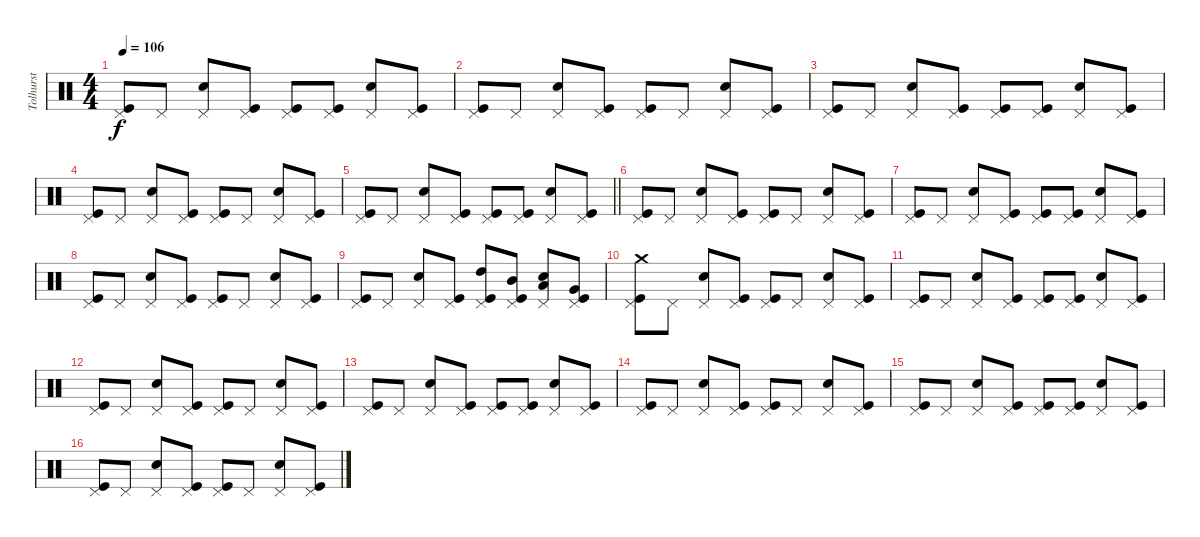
\track ("Tolhurst" "Tolhurst") {instrument percussion}
\staff {score}
\articulation defaults
\ts (4 4)
\tempo 106
\clef neutral
\ks c
("Pedal Hi-Hat (hit)" "Kick (hit)").8{dy f} "Pedal Hi-Hat (hit)".8 ("Pedal Hi-Hat (hit)" "Snare (hit) 2").8 ("Pedal Hi-Hat (hit)" "Kick (hit)").8 ("Pedal Hi-Hat (hit)" "Kick (hit)").8 ("Pedal Hi-Hat (hit)" "Kick (hit)").8 ("Pedal Hi-Hat (hit)" "Snare (hit) 2").8 ("Pedal Hi-Hat (hit)" "Kick (hit)").8 |
("Pedal Hi-Hat (hit)" "Kick (hit)").8 "Pedal Hi-Hat (hit)".8 ("Pedal Hi-Hat (hit)" "Snare (hit) 2").8 ("Pedal Hi-Hat (hit)" "Kick (hit)").8 ("Pedal Hi-Hat (hit)" "Kick (hit)").8 "Pedal Hi-Hat (hit)".8 ("Pedal Hi-Hat (hit)" "Snare (hit) 2").8 ("Pedal Hi-Hat (hit)" "Kick (hit)").8 |
("Pedal Hi-Hat (hit)" "Kick (hit)").8 "Pedal Hi-Hat (hit)".8 ("Pedal Hi-Hat (hit)" "Snare (hit) 2").8 ("Pedal Hi-Hat (hit)" "Kick (hit)").8 ("Pedal Hi-Hat (hit)" "Kick (hit)").8 ("Pedal Hi-Hat (hit)" "Kick (hit)").8 ("Pedal Hi-Hat (hit)" "Snare (hit) 2").8 ("Pedal Hi-Hat (hit)" "Kick (hit)").8 |
("Pedal Hi-Hat (hit)" "Kick (hit)").8 "Pedal Hi-Hat (hit)".8 ("Pedal Hi-Hat (hit)" "Snare (hit) 2").8 ("Pedal Hi-Hat (hit)" "Kick (hit)").8 ("Pedal Hi-Hat (hit)" "Kick (hit)").8 "Pedal Hi-Hat (hit)".8 ("Pedal Hi-Hat (hit)" "Snare (hit) 2").8 ("Pedal Hi-Hat (hit)" "Kick (hit)").8 |
\barLineRight lightlight
("Pedal Hi-Hat (hit)" "Kick (hit)").8 "Pedal Hi-Hat (hit)".8 ("Pedal Hi-Hat (hit)" "Snare (hit) 2").8 ("Pedal Hi-Hat (hit)" "Kick (hit)").8 ("Pedal Hi-Hat (hit)" "Kick (hit)").8 ("Pedal Hi-Hat (hit)" "Kick (hit)").8 ("Pedal Hi-Hat (hit)" "Snare (hit) 2").8 ("Pedal Hi-Hat (hit)" "Kick (hit)").8 |
("Pedal Hi-Hat (hit)" "Kick (hit)").8 "Pedal Hi-Hat (hit)".8 ("Pedal Hi-Hat (hit)" "Snare (hit) 2").8 ("Pedal Hi-Hat (hit)" "Kick (hit)").8 ("Pedal Hi-Hat (hit)" "Kick (hit)").8 "Pedal Hi-Hat (hit)".8 ("Pedal Hi-Hat (hit)" "Snare (hit) 2").8 ("Pedal Hi-Hat (hit)" "Kick (hit)").8 |
("Pedal Hi-Hat (hit)" "Kick (hit)").8 "Pedal Hi-Hat (hit)".8 ("Pedal Hi-Hat (hit)" "Snare (hit) 2").8 ("Pedal Hi-Hat (hit)" "Kick (hit)").8 ("Pedal Hi-Hat (hit)" "Kick (hit)").8 ("Pedal Hi-Hat (hit)" "Kick (hit)").8 ("Pedal Hi-Hat (hit)" "Snare (hit) 2").8 ("Pedal Hi-Hat (hit)" "Kick (hit)").8 |
("Pedal Hi-Hat (hit)" "Kick (hit)").8 "Pedal Hi-Hat (hit)".8 ("Pedal Hi-Hat (hit)" "Snare (hit) 2").8 ("Pedal Hi-Hat (hit)" "Kick (hit)").8 ("Pedal Hi-Hat (hit)" "Kick (hit)").8 "Pedal Hi-Hat (hit)".8 ("Pedal Hi-Hat (hit)" "Snare (hit) 2").8 ("Pedal Hi-Hat (hit)" "Kick (hit)").8 |
("Pedal Hi-Hat (hit)" "Kick (hit)").8 "Pedal Hi-Hat (hit)".8 ("Pedal Hi-Hat (hit)" "Snare (hit) 2").8 ("Pedal Hi-Hat (hit)" "Kick (hit)").8 ("High Tom (hit)" "Pedal Hi-Hat (hit)" "Kick (hit)").8 ("Mid Tom (hit)" "Pedal Hi-Hat (hit)" "Kick (hit)").8 ("Low Tom (hit)" "Pedal Hi-Hat (hit)" "Snare (hit) 2").8 ("Very Low Tom (hit)" "Pedal Hi-Hat (hit)" "Kick (hit)").8 |
("Crash medium (hit)" "Pedal Hi-Hat (hit)" "Kick (hit)").8 "Pedal Hi-Hat (hit)".8 ("Pedal Hi-Hat (hit)" "Snare (hit) 2").8 ("Pedal Hi-Hat (hit)" "Kick (hit)").8 ("Pedal Hi-Hat (hit)" "Kick (hit)").8 "Pedal Hi-Hat (hit)".8 ("Pedal Hi-Hat (hit)" "Snare (hit) 2").8 ("Pedal Hi-Hat (hit)" "Kick (hit)").8 |
("Pedal Hi-Hat (hit)" "Kick (hit)").8 "Pedal Hi-Hat (hit)".8 ("Pedal Hi-Hat (hit)" "Snare (hit) 2").8 ("Pedal Hi-Hat (hit)" "Kick (hit)").8 ("Pedal Hi-Hat (hit)" "Kick (hit)").8 ("Pedal Hi-Hat (hit)" "Kick (hit)").8 ("Pedal Hi-Hat (hit)" "Snare (hit) 2").8 ("Pedal Hi-Hat (hit)" "Kick (hit)").8 |
("Pedal Hi-Hat (hit)" "Kick (hit)").8 "Pedal Hi-Hat (hit)".8 ("Pedal Hi-Hat (hit)" "Snare (hit) 2").8 ("Pedal Hi-Hat (hit)" "Kick (hit)").8 ("Pedal Hi-Hat (hit)" "Kick (hit)").8 "Pedal Hi-Hat (hit)".8 ("Pedal Hi-Hat (hit)" "Snare (hit) 2").8 ("Pedal Hi-Hat (hit)" "Kick (hit)").8 |
("Pedal Hi-Hat (hit)" "Kick (hit)").8 "Pedal Hi-Hat (hit)".8 ("Pedal Hi-Hat (hit)" "Snare (hit) 2").8 ("Pedal Hi-Hat (hit)" "Kick (hit)").8 ("Pedal Hi-Hat (hit)" "Kick (hit)").8 ("Pedal Hi-Hat (hit)" "Kick (hit)").8 ("Pedal Hi-Hat (hit)" "Snare (hit) 2").8 ("Pedal Hi-Hat (hit)" "Kick (hit)").8 |
("Pedal Hi-Hat (hit)" "Kick (hit)").8 "Pedal Hi-Hat (hit)".8 ("Pedal Hi-Hat (hit)" "Snare (hit) 2").8 ("Pedal Hi-Hat (hit)" "Kick (hit)").8 ("Pedal Hi-Hat (hit)" "Kick (hit)").8 "Pedal Hi-Hat (hit)".8 ("Pedal Hi-Hat (hit)" "Snare (hit) 2").8 ("Pedal Hi-Hat (hit)" "Kick (hit)").8 |
("Pedal Hi-Hat (hit)" "Kick (hit)").8 "Pedal Hi-Hat (hit)".8 ("Pedal Hi-Hat (hit)" "Snare (hit) 2").8 ("Pedal Hi-Hat (hit)" "Kick (hit)").8 ("Pedal Hi-Hat (hit)" "Kick (hit)").8 ("Pedal Hi-Hat (hit)" "Kick (hit)").8 ("Pedal Hi-Hat (hit)" "Snare (hit) 2").8 ("Pedal Hi-Hat (hit)" "Kick (hit)").8 |
("Pedal Hi-Hat (hit)" "Kick (hit)").8 "Pedal Hi-Hat (hit)".8 ("Pedal Hi-Hat (hit)" "Snare (hit) 2").8 ("Pedal Hi-Hat (hit)" "Kick (hit)").8 ("Pedal Hi-Hat (hit)" "Kick (hit)").8 "Pedal Hi-Hat (hit)".8 ("Pedal Hi-Hat (hit)" "Snare (hit) 2").8 ("Pedal Hi-Hat (hit)" "Kick (hit)").8
